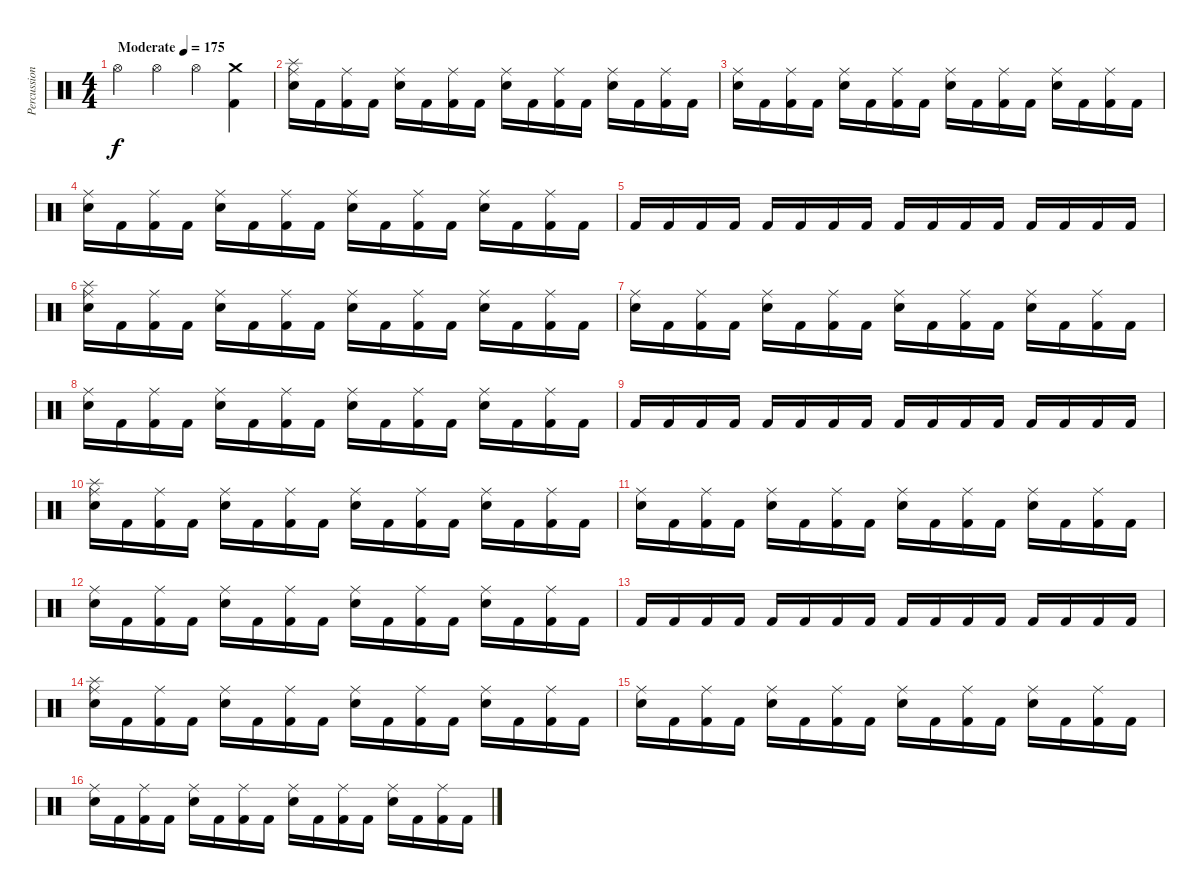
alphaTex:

\track ("Percussion" "Percussion") {instrument percussion}
\staff {score}
\articulation defaults
\ts (4 4)
\tempo (175 "Moderate")
\clef neutral
\ks c "Hi-Hat (open)".4{dy f} "Hi-Hat (open)".4 "Hi-Hat (open)".4
("Kick (hit) 2" "Crash medium (hit)").4 |
("Electric Snare (hit)" "Splash (hit)" "Ride (middle)").16 "Kick (hit) 2".16 ("Kick (hit) 2" "Ride (middle)").16 "Kick (hit) 2".16 ("Electric Snare (hit)" "Ride (middle)").16 "Kick (hit) 2".16 ("Kick (hit) 2" "Ride (middle)").16 "Kick (hit) 2".16 ("Electric Snare (hit)" "Ride (middle)").16 "Kick (hit) 2".16 ("Kick (hit) 2" "Ride (middle)").16 "Kick (hit) 2".16 ("Electric Snare (hit)" "Ride (middle)").16 "Kick (hit) 2".16 ("Kick (hit) 2" "Ride (middle)").16 "Kick (hit) 2".16 |
("Electric Snare (hit)" "Ride (middle)").16 "Kick (hit) 2".16 ("Kick (hit) 2" "Ride (middle)").16 "Kick (hit) 2".16 ("Electric Snare (hit)" "Ride (middle)").16 "Kick (hit) 2".16 ("Kick (hit) 2" "Ride (middle)").16 "Kick (hit) 2".16 ("Electric Snare (hit)" "Ride (middle)").16 "Kick (hit) 2".16 ("Kick (hit) 2" "Ride (middle)").16 "Kick (hit) 2".16 ("Electric Snare (hit)" "Ride (middle)").16 "Kick (hit) 2".16 ("Kick (hit) 2" "Ride (middle)").16 "Kick (hit) 2".16 |
("Electric Snare (hit)" "Ride (middle)").16 "Kick (hit) 2".16 ("Kick (hit) 2" "Ride (middle)").16 "Kick (hit) 2".16 ("Electric Snare (hit)" "Ride (middle)").16 "Kick (hit) 2".16 ("Kick (hit) 2" "Ride (middle)").16 "Kick (hit) 2".16 ("Electric Snare (hit)" "Ride (middle)").16 "Kick (hit) 2".16 ("Kick (hit) 2" "Ride (middle)").16 "Kick (hit) 2".16 ("Electric Snare (hit)" "Ride (middle)").16 "Kick (hit) 2".16 ("Kick (hit) 2" "Ride (middle)").16 "Kick (hit) 2".16 |
"Kick (hit) 2".16 "Kick (hit) 2".16 "Kick (hit) 2".16 "Kick (hit) 2".16 "Kick (hit) 2".16 "Kick (hit) 2".16 "Kick (hit) 2".16 "Kick (hit) 2".16 "Kick (hit) 2".16 "Kick (hit) 2".16 "Kick (hit) 2".16 "Kick (hit) 2".16 "Kick (hit) 2".16 "Kick (hit) 2".16 "Kick (hit) 2".16 "Kick (hit) 2".16 |
("Electric Snare (hit)" "Splash (hit)" "Ride (middle)").16 "Kick (hit) 2".16 ("Kick (hit) 2" "Ride (middle)").16 "Kick (hit) 2".16 ("Electric Snare (hit)" "Ride (middle)").16 "Kick (hit) 2".16 ("Kick (hit) 2" "Ride (middle)").16 "Kick (hit) 2".16 ("Electric Snare (hit)" "Ride (middle)").16 "Kick (hit) 2".16 ("Kick (hit) 2" "Ride (middle)").16 "Kick (hit) 2".16 ("Electric Snare (hit)" "Ride (middle)").16 "Kick (hit) 2".16 ("Kick (hit) 2" "Ride (middle)").16 "Kick (hit) 2".16 |
("Electric Snare (hit)" "Ride (middle)").16 "Kick (hit) 2".16 ("Kick (hit) 2" "Ride (middle)").16 "Kick (hit) 2".16 ("Electric Snare (hit)" "Ride (middle)").16 "Kick (hit) 2".16 ("Kick (hit) 2" "Ride (middle)").16 "Kick (hit) 2".16 ("Electric Snare (hit)" "Ride (middle)").16 "Kick (hit) 2".16 ("Kick (hit) 2" "Ride (middle)").16 "Kick (hit) 2".16 ("Electric Snare (hit)" "Ride (middle)").16 "Kick (hit) 2".16 ("Kick (hit) 2" "Ride (middle)").16 "Kick (hit) 2".16 |
("Electric Snare (hit)" "Ride (middle)").16 "Kick (hit) 2".16 ("Kick (hit) 2" "Ride (middle)").16 "Kick (hit) 2".16 ("Electric Snare (hit)" "Ride (middle)").16 "Kick (hit) 2".16 ("Kick (hit) 2" "Ride (middle)").16 "Kick (hit) 2".16 ("Electric Snare (hit)" "Ride (middle)").16 "Kick (hit) 2".16 ("Kick (hit) 2" "Ride (middle)").16 "Kick (hit) 2".16 ("Electric Snare (hit)" "Ride (middle)").16 "Kick (hit) 2".16 ("Kick (hit) 2" "Ride (middle)").16 "Kick (hit) 2".16 |
"Kick (hit) 2".16 "Kick (hit) 2".16 "Kick (hit) 2".16 "Kick (hit) 2".16 "Kick (hit) 2".16 "Kick (hit) 2".16 "Kick (hit) 2".16 "Kick (hit) 2".16 "Kick (hit) 2".16 "Kick (hit) 2".16 "Kick (hit) 2".16 "Kick (hit) 2".16 "Kick (hit) 2".16 "Kick (hit) 2".16 "Kick (hit) 2".16 "Kick (hit) 2".16 |
("Electric Snare (hit)" "Splash (hit)" "Ride (middle)").16 "Kick (hit) 2".16 ("Kick (hit) 2" "Ride (middle)").16 "Kick (hit) 2".16 ("Electric Snare (hit)" "Ride (middle)").16 "Kick (hit) 2".16 ("Kick (hit) 2" "Ride (middle)").16 "Kick (hit) 2".16 ("Electric Snare (hit)" "Ride (middle)").16 "Kick (hit) 2".16 ("Kick (hit) 2" "Ride (middle)").16 "Kick (hit) 2".16 ("Electric Snare (hit)" "Ride (middle)").16 "Kick (hit) 2".16 ("Kick (hit) 2" "Ride (middle)").16 "Kick (hit) 2".16 |
("Electric Snare (hit)" "Ride (middle)").16 "Kick (hit) 2".16 ("Kick (hit) 2" "Ride (middle)").16 "Kick (hit) 2".16 ("Electric Snare (hit)" "Ride (middle)").16 "Kick (hit) 2".16 ("Kick (hit) 2" "Ride (middle)").16 "Kick (hit) 2".16 ("Electric Snare (hit)" "Ride (middle)").16 "Kick (hit) 2".16 ("Kick (hit) 2" "Ride (middle)").16 "Kick (hit) 2".16 ("Electric Snare (hit)" "Ride (middle)").16 "Kick (hit) 2".16 ("Kick (hit) 2" "Ride (middle)").16 "Kick (hit) 2".16 |
("Electric Snare (hit)" "Ride (middle)").16 "Kick (hit) 2".16 ("Kick (hit) 2" "Ride (middle)").16 "Kick (hit) 2".16 ("Electric Snare (hit)" "Ride (middle)").16 "Kick (hit) 2".16 ("Kick (hit) 2" "Ride (middle)").16 "Kick (hit) 2".16 ("Electric Snare (hit)" "Ride (middle)").16 "Kick (hit) 2".16 ("Kick (hit) 2" "Ride (middle)").16 "Kick (hit) 2".16 ("Electric Snare (hit)" "Ride (middle)").16 "Kick (hit) 2".16 ("Kick (hit) 2" "Ride (middle)").16 "Kick (hit) 2".16 |
"Kick (hit) 2".16 "Kick (hit) 2".16 "Kick (hit) 2".16 "Kick (hit) 2".16 "Kick (hit) 2".16 "Kick (hit) 2".16 "Kick (hit) 2".16 "Kick (hit) 2".16 "Kick (hit) 2".16 "Kick (hit) 2".16 "Kick (hit) 2".16 "Kick (hit) 2".16 "Kick (hit) 2".16 "Kick (hit) 2".16 "Kick (hit) 2".16 "Kick (hit) 2".16 |
("Electric Snare (hit)" "Splash (hit)" "Ride (middle)").16 "Kick (hit) 2".16 ("Kick (hit) 2" "Ride (middle)").16 "Kick (hit) 2".16 ("Electric Snare (hit)" "Ride (middle)").16 "Kick (hit) 2".16 ("Kick (hit) 2" "Ride (middle)").16 "Kick (hit) 2".16 ("Electric Snare (hit)" "Ride (middle)").16 "Kick (hit) 2".16 ("Kick (hit) 2" "Ride (middle)").16 "Kick (hit) 2".16 ("Electric Snare (hit)" "Ride (middle)").16 "Kick (hit) 2".16 ("Kick (hit) 2" "Ride (middle)").16 "Kick (hit) 2".16 |
("Electric Snare (hit)" "Ride (middle)").16 "Kick (hit) 2".16 ("Kick (hit) 2" "Ride (middle)").16 "Kick (hit) 2".16 ("Electric Snare (hit)" "Ride (middle)").16 "Kick (hit) 2".16 ("Kick (hit) 2" "Ride (middle)").16 "Kick (hit) 2".16 ("Electric Snare (hit)" "Ride (middle)").16 "Kick (hit) 2".16 ("Kick (hit) 2" "Ride (middle)").16 "Kick (hit) 2".16 ("Electric Snare (hit)" "Ride (middle)").16 "Kick (hit) 2".16 ("Kick (hit) 2" "Ride (middle)").16 "Kick (hit) 2".16 |
("Electric Snare (hit)" "Ride (middle)").16 "Kick (hit) 2".16 ("Kick (hit) 2" "Ride (middle)").16 "Kick (hit) 2".16 ("Electric Snare (hit)" "Ride (middle)").16 "Kick (hit) 2".16 ("Kick (hit) 2" "Ride (middle)").16 "Kick (hit) 2".16 ("Electric Snare (hit)" "Ride (middle)").16 "Kick (hit) 2".16 ("Kick (hit) 2" "Ride (middle)").16 "Kick (hit) 2".16 ("Electric Snare (hit)" "Ride (middle)").16 "Kick (hit) 2".16 ("Kick (hit) 2" "Ride (middle)").16 "Kick (hit) 2".16
